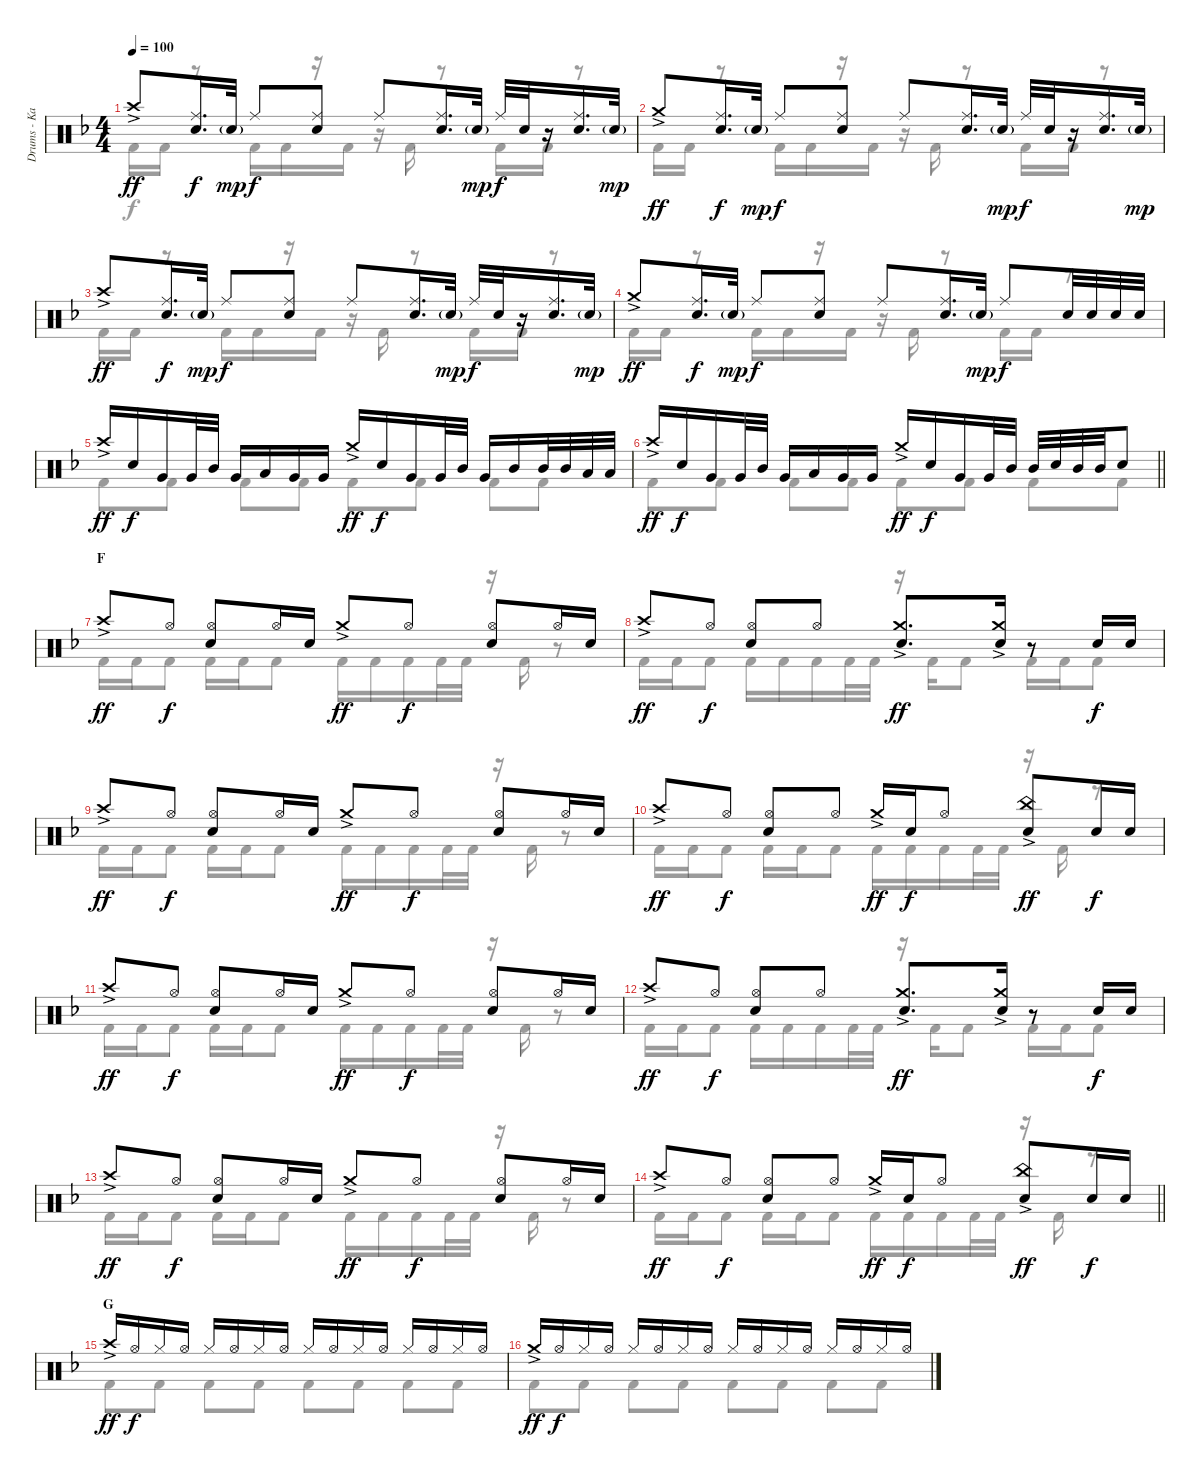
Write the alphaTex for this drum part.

\track ("Drums - Kai" "Drums - Ka") {instrument percussion}
\staff {score}
\articulation defaults
\voice
\ts (4 4)
\tempo 100
\clef neutral
\ks f "Crash high (hit)"{ac}.8{dy ff}
("Ride (middle)" "Electric Snare (hit)").16{d dy f} "Electric Snare (hit)"{g}.32{dy mp} "Ride (middle)".8{dy f} ("Ride (middle)" "Electric Snare (hit)").8 "Ride (middle)".8 ("Ride (middle)" "Electric Snare (hit)").16{d} "Electric Snare (hit)"{g}.32{dy mp} "Ride (middle)".32{dy f} "Electric Snare (hit)".32 r.16 ("Ride (middle)" "Electric Snare (hit)").16{d} "Electric Snare (hit)"{g}.32{dy mp} |
"Crash medium (hit)"{ac}.8{dy ff} ("Ride (middle)" "Electric Snare (hit)").16{d dy f} "Electric Snare (hit)"{g}.32{dy mp} "Ride (middle)".8{dy f} ("Ride (middle)" "Electric Snare (hit)").8 "Ride (middle)".8 ("Ride (middle)" "Electric Snare (hit)").16{d} "Electric Snare (hit)"{g}.32{dy mp} "Ride (middle)".32{dy f} "Electric Snare (hit)".32 r.16 ("Ride (middle)" "Electric Snare (hit)").16{d} "Electric Snare (hit)"{g}.32{dy mp} |
"Crash high (hit)"{ac}.8{dy ff} ("Ride (middle)" "Electric Snare (hit)").16{d dy f} "Electric Snare (hit)"{g}.32{dy mp} "Ride (middle)".8{dy f} ("Ride (middle)" "Electric Snare (hit)").8 "Ride (middle)".8 ("Ride (middle)" "Electric Snare (hit)").16{d} "Electric Snare (hit)"{g}.32{dy mp} "Ride (middle)".32{dy f} "Electric Snare (hit)".32 r.16 ("Ride (middle)" "Electric Snare (hit)").16{d} "Electric Snare (hit)"{g}.32{dy mp} |
"Crash medium (hit)"{ac}.8{dy ff} ("Ride (middle)" "Electric Snare (hit)").16{d dy f} "Electric Snare (hit)"{g}.32{dy mp} "Ride (middle)".8{dy f} ("Ride (middle)" "Electric Snare (hit)").8 "Ride (middle)".8 ("Ride (middle)" "Electric Snare (hit)").16{d} "Electric Snare (hit)"{g}.32{dy mp} "Ride (middle)".8{dy f} "Electric Snare (hit)".32 "Electric Snare (hit)".32 "Electric Snare (hit)".32 "Electric Snare (hit)".32 |
"Crash high (hit)"{ac}.16{dy ff} "Electric Snare (hit)".16{dy f} "Very Low Tom (hit)".16 "Very Low Tom (hit)".32 "Mid Tom (hit)".32 "Very Low Tom (hit)".16 "Low Tom (hit)".16 "Very Low Tom (hit)".16 "Very Low Tom (hit)".16 "Crash medium (hit)"{ac}.16{dy ff} "Electric Snare (hit)".16{dy f} "Very Low Tom (hit)".16 "Very Low Tom (hit)".32 "Mid Tom (hit)".32 "Very Low Tom (hit)".16 "Mid Tom (hit)".16 "Mid Tom (hit)".32 "Mid Tom (hit)".32 "Low Tom (hit)".32 "Low Tom (hit)".32 |
\barLineRight lightlight "Crash high (hit)"{ac}.16{dy ff} "Electric Snare (hit)".16{dy f} "Very Low Tom (hit)".16 "Very Low Tom (hit)".32 "Mid Tom (hit)".32 "Very Low Tom (hit)".16 "Low Tom (hit)".16 "Very Low Tom (hit)".16 "Very Low Tom (hit)".16 "Crash medium (hit)"{ac}.16{dy ff} "Electric Snare (hit)".16{dy f} "Very Low Tom (hit)".16 "Very Low Tom (hit)".32 "Mid Tom (hit)".32 "Mid Tom (hit)".32 "Electric Snare (hit)".32 "Mid Tom (hit)".32 "Mid Tom (hit)".32 "Electric Snare (hit)".8
|
\section ("" "F")
"Crash high (hit)"{ac}.8{dy ff} "Hi-Hat (open)".8{dy f} ("Hi-Hat (open)" "Electric Snare (hit)").8 "Hi-Hat (open)".16 "Electric Snare (hit)".16 "Crash medium (hit)"{ac}.8{dy ff} "Hi-Hat (open)".8{dy f} ("Hi-Hat (open)" "Electric Snare (hit)").8 "Hi-Hat (open)".16 "Electric Snare (hit)".16 |
"Crash high (hit)"{ac}.8{dy ff} "Hi-Hat (open)".8{dy f} ("Hi-Hat (open)" "Electric Snare (hit)").8 "Hi-Hat (open)".8 ("Crash medium (hit)"{ac} "Electric Snare (hit)").8{d dy ff} ("Crash medium (hit)"{ac} "Electric Snare (hit)").16 r.8 "Electric Snare (hit)".16{dy f} "Electric Snare (hit)".16 |
"Crash high (hit)"{ac}.8{dy ff} "Hi-Hat (open)".8{dy f} ("Hi-Hat (open)" "Electric Snare (hit)").8 "Hi-Hat (open)".16 "Electric Snare (hit)".16 "Crash medium (hit)"{ac}.8{dy ff} "Hi-Hat (open)".8{dy f} ("Hi-Hat (open)" "Electric Snare (hit)").8 "Hi-Hat (open)".16 "Electric Snare (hit)".16 |
"Crash high (hit)"{ac}.8{dy ff} "Hi-Hat (open)".8{dy f} ("Hi-Hat (open)" "Electric Snare (hit)").8 "Hi-Hat (open)".8 "Crash medium (hit)"{ac}.16{dy ff} "Electric Snare (hit)".16{dy f} "Hi-Hat (open)".8 ("China (hit)"{ac} "Electric Snare (hit)").8{dy ff} "Electric Snare (hit)".16{dy f} "Electric Snare (hit)".16 |
"Crash high (hit)"{ac}.8{dy ff} "Hi-Hat (open)".8{dy f} ("Hi-Hat (open)" "Electric Snare (hit)").8 "Hi-Hat (open)".16 "Electric Snare (hit)".16 "Crash medium (hit)"{ac}.8{dy ff} "Hi-Hat (open)".8{dy f} ("Hi-Hat (open)" "Electric Snare (hit)").8 "Hi-Hat (open)".16 "Electric Snare (hit)".16 |
"Crash high (hit)"{ac}.8{dy ff} "Hi-Hat (open)".8{dy f} ("Hi-Hat (open)" "Electric Snare (hit)").8 "Hi-Hat (open)".8 ("Crash medium (hit)"{ac} "Electric Snare (hit)").8{d dy ff} ("Crash medium (hit)"{ac} "Electric Snare (hit)").16 r.8 "Electric Snare (hit)".16{dy f} "Electric Snare (hit)".16 |
"Crash high (hit)"{ac}.8{dy ff} "Hi-Hat (open)".8{dy f} ("Hi-Hat (open)" "Electric Snare (hit)").8 "Hi-Hat (open)".16 "Electric Snare (hit)".16 "Crash medium (hit)"{ac}.8{dy ff} "Hi-Hat (open)".8{dy f} ("Hi-Hat (open)" "Electric Snare (hit)").8 "Hi-Hat (open)".16 "Electric Snare (hit)".16 |
\barLineRight lightlight "Crash high (hit)"{ac}.8{dy ff} "Hi-Hat (open)".8{dy f}
("Hi-Hat (open)" "Electric Snare (hit)").8 "Hi-Hat (open)".8 "Crash medium (hit)"{ac}.16{dy ff} "Electric Snare (hit)".16{dy f} "Hi-Hat (open)".8 ("China (hit)"{ac} "Electric Snare (hit)").8{dy ff} "Electric Snare (hit)".16{dy f} "Electric Snare (hit)".16 |
\section ("" "G")
"Crash high (hit)"{ac}.16{dy ff} "Hi-Hat (open)".16{dy f} "Hi-Hat (closed)".16 "Hi-Hat (open)".16 "Hi-Hat (closed)".16 "Hi-Hat (open)".16 "Hi-Hat (closed)".16 "Hi-Hat (open)".16 "Hi-Hat (closed)".16 "Hi-Hat (open)".16 "Hi-Hat (closed)".16 "Hi-Hat (open)".16 "Hi-Hat (closed)".16 "Hi-Hat (open)".16 "Hi-Hat (closed)".16 "Hi-Hat (open)".16 |
"Crash medium (hit)"{ac}.16{dy ff} "Hi-Hat (open)".16{dy f} "Hi-Hat (closed)".16 "Hi-Hat (open)".16 "Hi-Hat (closed)".16 "Hi-Hat (open)".16 "Hi-Hat (closed)".16 "Hi-Hat (open)".16 "Hi-Hat (closed)".16 "Hi-Hat (open)".16 "Hi-Hat (closed)".16 "Hi-Hat (open)".16 "Hi-Hat (closed)".16 "Hi-Hat (open)".16 "Hi-Hat (closed)".16 "Hi-Hat (open)".16
\voice
\clef neutral
\ottava regular
\simile none
\ks f "Kick (hit) 2".16{dy f} "Kick (hit) 2".16
r.8 "Kick (hit) 2".16 "Kick (hit) 2".16 r.16 "Kick (hit) 2".16 r.16 "Kick (hit) 2".16 r.8 "Kick (hit) 2".16 "Kick (hit) 2".16 r.8 |
"Kick (hit) 2".16 "Kick (hit) 2".16 r.8 "Kick (hit) 2".16 "Kick (hit) 2".16 r.16 "Kick (hit) 2".16 r.16 "Kick (hit) 2".16 r.8 "Kick (hit) 2".16 "Kick (hit) 2".16 r.8 |
"Kick (hit) 2".16 "Kick (hit) 2".16 r.8 "Kick (hit) 2".16 "Kick (hit) 2".16 r.16 "Kick (hit) 2".16 r.16 "Kick (hit) 2".16 r.8 "Kick (hit) 2".16 "Kick (hit) 2".16 r.8 |
"Kick (hit) 2".16 "Kick (hit) 2".16 r.8 "Kick (hit) 2".16 "Kick (hit) 2".16 r.16 "Kick (hit) 2".16 r.16 "Kick (hit) 2".16 r.8 "Kick (hit) 2".16 "Kick (hit) 2".16 r.8 |
"Kick (hit) 2".8 "Kick (hit) 2".8 "Kick (hit) 2".8 "Kick (hit) 2".8 "Kick (hit) 2".8 "Kick (hit) 2".8 "Kick (hit) 2".8 "Kick (hit) 2".8 |
\barLineRight lightlight "Kick (hit) 2".8 "Kick (hit) 2".8 "Kick (hit) 2".8 "Kick (hit) 2".8 "Kick (hit) 2".8 "Kick (hit) 2".8 "Kick (hit) 2".8 "Kick (hit) 2".8
|
"Kick (hit) 2".16 "Kick (hit) 2".16 "Kick (hit) 2".8 "Kick (hit) 2".16 "Kick (hit) 2".16 "Kick (hit) 2".8 "Kick (hit) 2".16 "Kick (hit) 2".16 "Kick (hit) 2".16 "Kick (hit) 2".32 "Kick (hit) 2".32 r.16 "Kick (hit) 2".16 r.8 |
"Kick (hit) 2".16 "Kick (hit) 2".16 "Kick (hit) 2".8 "Kick (hit) 2".16 "Kick (hit) 2".16 "Kick (hit) 2".16 "Kick (hit) 2".32 "Kick (hit) 2".32 r.16 "Kick (hit) 2".16 "Kick (hit) 2".8 "Kick (hit) 2".16 "Kick (hit) 2".16 "Kick (hit) 2".8 |
"Kick (hit) 2".16 "Kick (hit) 2".16 "Kick (hit) 2".8 "Kick (hit) 2".16 "Kick (hit) 2".16 "Kick (hit) 2".8 "Kick (hit) 2".16 "Kick (hit) 2".16 "Kick (hit) 2".16 "Kick (hit) 2".32 "Kick (hit) 2".32 r.16 "Kick (hit) 2".16 r.8 |
"Kick (hit) 2".16 "Kick (hit) 2".16 "Kick (hit) 2".8 "Kick (hit) 2".16 "Kick (hit) 2".16 "Kick (hit) 2".8 "Kick (hit) 2".16 "Kick (hit) 2".16 "Kick (hit) 2".16 "Kick (hit) 2".32 "Kick (hit) 2".32 r.16 "Kick (hit) 2".16 r.8 |
"Kick (hit) 2".16 "Kick (hit) 2".16 "Kick (hit) 2".8 "Kick (hit) 2".16 "Kick (hit) 2".16 "Kick (hit) 2".8 "Kick (hit) 2".16 "Kick (hit) 2".16 "Kick (hit) 2".16 "Kick (hit) 2".32 "Kick (hit) 2".32 r.16 "Kick (hit) 2".16 r.8 |
"Kick (hit) 2".16 "Kick (hit) 2".16 "Kick (hit) 2".8 "Kick (hit) 2".16 "Kick (hit) 2".16 "Kick (hit) 2".16 "Kick (hit) 2".32 "Kick (hit) 2".32 r.16 "Kick (hit) 2".16 "Kick (hit) 2".8 "Kick (hit) 2".16 "Kick (hit) 2".16 "Kick (hit) 2".8 |
"Kick (hit) 2".16 "Kick (hit) 2".16 "Kick (hit) 2".8 "Kick (hit) 2".16 "Kick (hit) 2".16 "Kick (hit) 2".8 "Kick (hit) 2".16 "Kick (hit) 2".16 "Kick (hit) 2".16 "Kick (hit) 2".32 "Kick (hit) 2".32 r.16 "Kick (hit) 2".16 r.8 |
\barLineRight lightlight "Kick (hit) 2".16 "Kick (hit) 2".16 "Kick (hit) 2".8 "Kick (hit) 2".16 "Kick (hit) 2".16 "Kick (hit) 2".8 "Kick (hit) 2".16 "Kick (hit) 2".16 "Kick (hit) 2".16 "Kick (hit) 2".32 "Kick (hit) 2".32
r.16 "Kick (hit) 2".16 r.8 |
"Kick (hit) 2".8 "Kick (hit) 2".8 "Kick (hit) 2".8 "Kick (hit) 2".8 "Kick (hit) 2".8 "Kick (hit) 2".8 "Kick (hit) 2".8 "Kick (hit) 2".8 |
"Kick (hit) 2".8 "Kick (hit) 2".8 "Kick (hit) 2".8 "Kick (hit) 2".8 "Kick (hit) 2".8 "Kick (hit) 2".8 "Kick (hit) 2".8 "Kick (hit) 2".8
